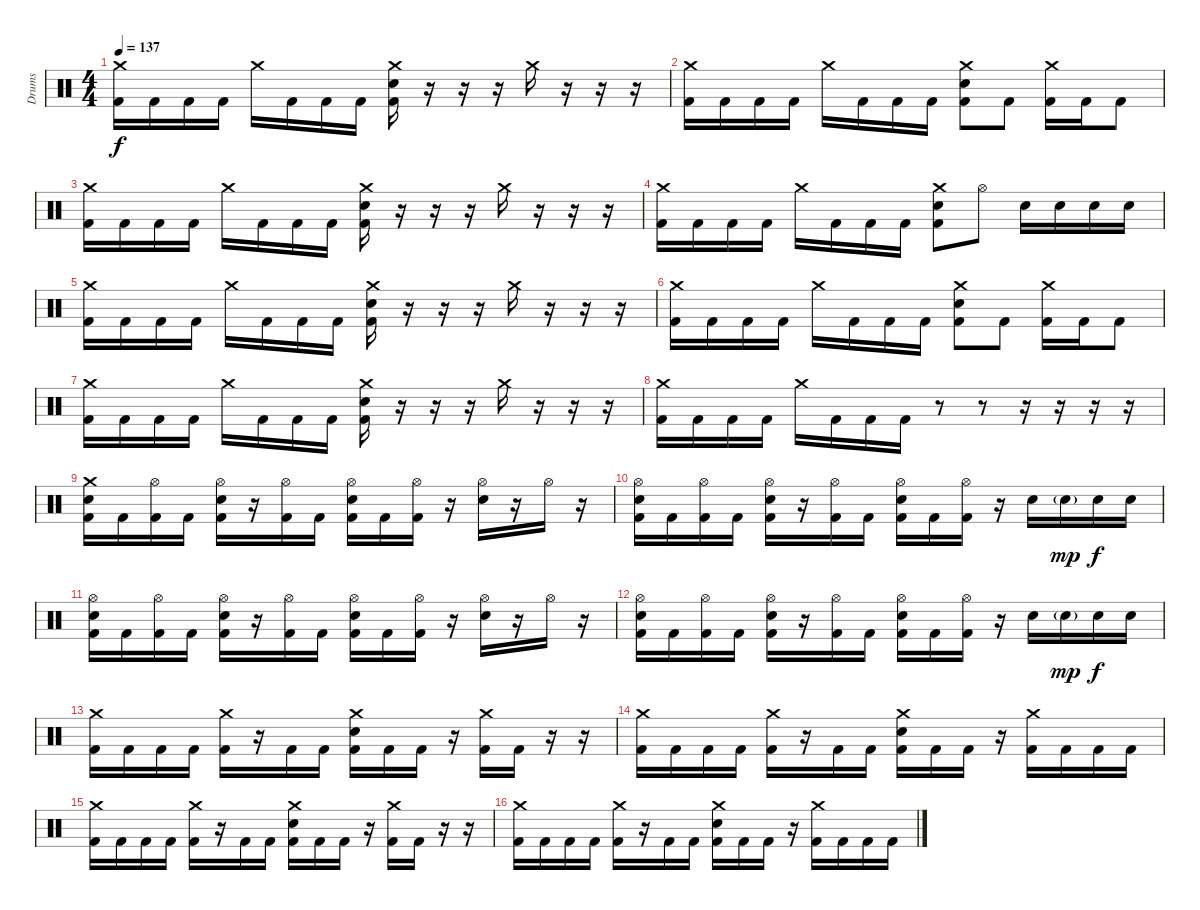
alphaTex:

\track ("Drums" "Drums") {instrument percussion}
\staff {score}
\articulation defaults
\ts (4 4)
\tempo 137
\clef neutral
\ks c
("Crash medium (hit)" "Kick (hit) 2").16{dy f} "Kick (hit) 2".16 "Kick (hit) 2".16 "Kick (hit) 2".16 "Crash medium (hit)".16 "Kick (hit) 2".16 "Kick (hit) 2".16 "Kick (hit) 2".16 ("Crash medium (hit)" "Electric Snare (hit)" "Kick (hit) 2").16 r.16 r.16 r.16 "Crash medium (hit)".16 r.16 r.16 r.16 |
("Crash medium (hit)" "Kick (hit) 2").16 "Kick (hit) 2".16 "Kick (hit) 2".16 "Kick (hit) 2".16 "Crash medium (hit)".16 "Kick (hit) 2".16 "Kick (hit) 2".16 "Kick (hit) 2".16 ("Crash medium (hit)" "Electric Snare (hit)" "Kick (hit) 2").8 "Kick (hit) 2".8 ("Crash medium (hit)" "Kick (hit) 2").16 "Kick (hit) 2".16 "Kick (hit) 2".8 |
("Crash medium (hit)" "Kick (hit) 2").16 "Kick (hit) 2".16 "Kick (hit) 2".16 "Kick (hit) 2".16 "Crash medium (hit)".16 "Kick (hit) 2".16 "Kick (hit) 2".16 "Kick (hit) 2".16 ("Crash medium (hit)" "Electric Snare (hit)" "Kick (hit) 2").16 r.16 r.16 r.16 "Crash medium (hit)".16 r.16 r.16 r.16 |
("Crash medium (hit)" "Kick (hit) 2").16 "Kick (hit) 2".16 "Kick (hit) 2".16 "Kick (hit) 2".16 "Crash medium (hit)".16 "Kick (hit) 2".16 "Kick (hit) 2".16 "Kick (hit) 2".16 ("Crash medium (hit)" "Electric Snare (hit)" "Kick (hit) 2").8 "Hi-Hat (open)".8 "Electric Snare (hit)".16 "Electric Snare (hit)".16 "Electric Snare (hit)".16 "Electric Snare (hit)".16 |
("Crash medium (hit)" "Kick (hit) 2").16 "Kick (hit) 2".16 "Kick (hit) 2".16 "Kick (hit) 2".16 "Crash medium (hit)".16 "Kick (hit) 2".16 "Kick (hit) 2".16 "Kick (hit) 2".16 ("Crash medium (hit)" "Electric Snare (hit)" "Kick (hit) 2").16 r.16 r.16 r.16 "Crash medium (hit)".16 r.16 r.16 r.16 |
("Crash medium (hit)" "Kick (hit) 2").16 "Kick (hit) 2".16 "Kick (hit) 2".16 "Kick (hit) 2".16 "Crash medium (hit)".16 "Kick (hit) 2".16 "Kick (hit) 2".16 "Kick (hit) 2".16 ("Crash medium (hit)" "Electric Snare (hit)" "Kick (hit) 2").8 "Kick (hit) 2".8 ("Crash medium (hit)" "Kick (hit) 2").16 "Kick (hit) 2".16 "Kick (hit) 2".8 |
("Crash medium (hit)" "Kick (hit) 2").16 "Kick (hit) 2".16 "Kick (hit) 2".16 "Kick (hit) 2".16 "Crash medium (hit)".16 "Kick (hit) 2".16 "Kick (hit) 2".16 "Kick (hit) 2".16 ("Crash medium (hit)" "Electric Snare (hit)" "Kick (hit) 2").16 r.16 r.16 r.16 "Crash medium (hit)".16 r.16 r.16 r.16 |
("Crash medium (hit)" "Kick (hit) 2").16 "Kick (hit) 2".16 "Kick (hit) 2".16 "Kick (hit) 2".16 "Crash medium (hit)".16 "Kick (hit) 2".16 "Kick (hit) 2".16 "Kick (hit) 2".16 r.8 r.8 r.16 r.16 r.16 r.16 |
("Crash medium (hit)" "Electric Snare (hit)" "Kick (hit) 2").16 "Kick (hit) 2".16 ("Hi-Hat (open)" "Kick (hit) 2").16 "Kick (hit) 2".16 ("Hi-Hat (open)" "Electric Snare (hit)" "Kick (hit) 2").16 r.16 ("Hi-Hat (open)" "Kick (hit) 2").16 "Kick (hit) 2".16 ("Hi-Hat (open)" "Electric Snare (hit)" "Kick (hit) 2").16 "Kick (hit) 2".16 ("Hi-Hat (open)" "Kick (hit) 2").16 r.16 ("Hi-Hat (open)" "Electric Snare (hit)").16 r.16 "Hi-Hat (open)".16 r.16 |
("Hi-Hat (open)" "Electric Snare (hit)" "Kick (hit) 2").16 "Kick (hit) 2".16 ("Hi-Hat (open)" "Kick (hit) 2").16 "Kick (hit) 2".16 ("Hi-Hat (open)" "Electric Snare (hit)" "Kick (hit) 2").16 r.16 ("Hi-Hat (open)" "Kick (hit) 2").16 "Kick (hit) 2".16 ("Hi-Hat (open)" "Electric Snare (hit)" "Kick (hit) 2").16 "Kick (hit) 2".16 ("Hi-Hat (open)" "Kick (hit) 2").16 r.16 "Electric Snare (hit)".16 "Snare (hit) 2"{g}.16{dy mp} "Electric Snare (hit)".16{dy f} "Electric Snare (hit)".16 |
("Hi-Hat (open)" "Electric Snare (hit)" "Kick (hit) 2").16 "Kick (hit) 2".16 ("Hi-Hat (open)" "Kick (hit) 2").16 "Kick (hit) 2".16 ("Hi-Hat (open)" "Electric Snare (hit)" "Kick (hit) 2").16 r.16 ("Hi-Hat (open)" "Kick (hit) 2").16 "Kick (hit) 2".16 ("Hi-Hat (open)" "Electric Snare (hit)" "Kick (hit) 2").16 "Kick (hit) 2".16 ("Hi-Hat (open)" "Kick (hit) 2").16 r.16 ("Hi-Hat (open)" "Electric Snare (hit)").16 r.16 "Hi-Hat (open)".16 r.16 |
("Hi-Hat (open)" "Electric Snare (hit)" "Kick (hit) 2").16 "Kick (hit) 2".16 ("Hi-Hat (open)" "Kick (hit) 2").16 "Kick (hit) 2".16 ("Hi-Hat (open)" "Electric Snare (hit)" "Kick (hit) 2").16 r.16 ("Hi-Hat (open)" "Kick (hit) 2").16 "Kick (hit) 2".16 ("Hi-Hat (open)" "Electric Snare (hit)" "Kick (hit) 2").16 "Kick (hit) 2".16 ("Hi-Hat (open)" "Kick (hit) 2").16 r.16 "Electric Snare (hit)".16 "Snare (hit) 2"{g}.16{dy mp} "Electric Snare (hit)".16{dy f} "Electric Snare (hit)".16 |
("Crash medium (hit)" "Kick (hit) 2").16 "Kick (hit) 2".16 "Kick (hit) 2".16 "Kick (hit) 2".16 ("Crash medium (hit)" "Kick (hit) 2").16 r.16 "Kick (hit) 2".16 "Kick (hit) 2".16 ("Crash medium (hit)" "Electric Snare (hit)" "Kick (hit) 2").16 "Kick (hit) 2".16 "Kick (hit) 2".16 r.16 ("Crash medium (hit)" "Kick (hit) 2").16 "Kick (hit) 2".16 r.16 r.16 |
("Crash medium (hit)" "Kick (hit) 2").16 "Kick (hit) 2".16 "Kick (hit) 2".16 "Kick (hit) 2".16 ("Crash medium (hit)" "Kick (hit) 2").16 r.16 "Kick (hit) 2".16 "Kick (hit) 2".16 ("Crash medium (hit)" "Electric Snare (hit)" "Kick (hit) 2").16 "Kick (hit) 2".16 "Kick (hit) 2".16 r.16 ("Crash medium (hit)" "Kick (hit) 2").16 "Kick (hit) 2".16 "Kick (hit) 2".16 "Kick (hit) 2".16 |
("Crash medium (hit)" "Kick (hit) 2").16 "Kick (hit) 2".16 "Kick (hit) 2".16 "Kick (hit) 2".16 ("Crash medium (hit)" "Kick (hit) 2").16 r.16 "Kick (hit) 2".16 "Kick (hit) 2".16 ("Crash medium (hit)" "Electric Snare (hit)" "Kick (hit) 2").16 "Kick (hit) 2".16 "Kick (hit) 2".16 r.16 ("Crash medium (hit)" "Kick (hit) 2").16 "Kick (hit) 2".16 r.16 r.16 |
("Crash medium (hit)" "Kick (hit) 2").16 "Kick (hit) 2".16 "Kick (hit) 2".16 "Kick (hit) 2".16 ("Crash medium (hit)" "Kick (hit) 2").16 r.16 "Kick (hit) 2".16 "Kick (hit) 2".16 ("Crash medium (hit)" "Electric Snare (hit)" "Kick (hit) 2").16 "Kick (hit) 2".16 "Kick (hit) 2".16 r.16 ("Crash medium (hit)" "Kick (hit) 2").16 "Kick (hit) 2".16 "Kick (hit) 2".16 "Kick (hit) 2".16
